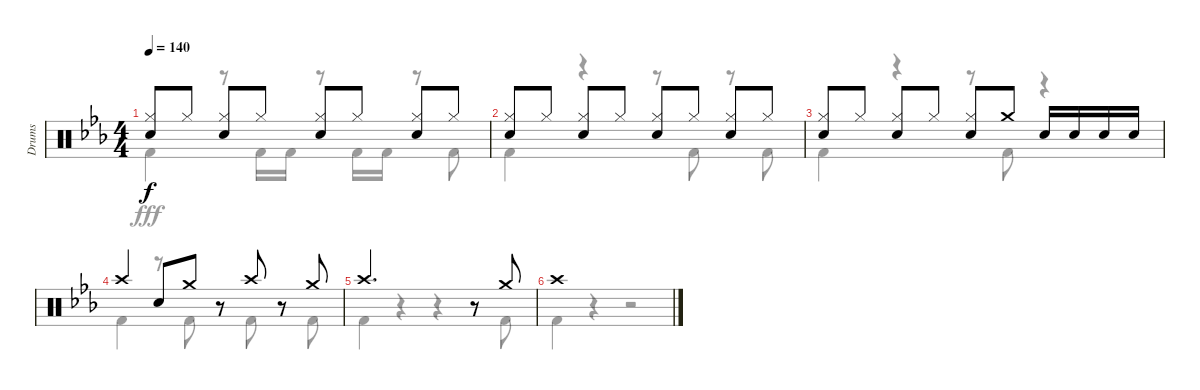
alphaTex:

\track ("Drums" "Drums") {instrument percussion}
\staff {score}
\articulation defaults
\voice
\ts (4 4)
\tempo 140
\clef neutral
\ks eb
("Hi-Hat (closed)" "Snare (hit) 2").8{dy f} "Hi-Hat (closed)".8 ("Hi-Hat (closed)" "Snare (hit) 2").8 "Hi-Hat (closed)".8 ("Hi-Hat (closed)" "Snare (hit) 2").8 "Hi-Hat (closed)".8 ("Hi-Hat (closed)" "Snare (hit) 2").8 "Hi-Hat (closed)".8 |
("Hi-Hat (closed)" "Snare (hit) 2").8 "Hi-Hat (closed)".8 ("Hi-Hat (closed)" "Snare (hit) 2").8 "Hi-Hat (closed)".8 ("Hi-Hat (closed)" "Snare (hit) 2").8 "Hi-Hat (closed)".8 ("Hi-Hat (closed)" "Snare (hit) 2").8 "Hi-Hat (closed)".8 |
("Hi-Hat (closed)" "Snare (hit) 2").8 "Hi-Hat (closed)".8 ("Hi-Hat (closed)" "Snare (hit) 2").8 "Hi-Hat (closed)".8 ("Hi-Hat (closed)" "Snare (hit) 2").8 "Crash medium (hit)".8 "Snare (hit) 2".16 "Snare (hit) 2".16 "Snare (hit) 2".16 "Snare (hit) 2".16 |
"Crash high (hit)".4 "Snare (hit) 2".8 "Crash medium (hit)".8 r.8 "Crash high (hit)".8 r.8 "Crash medium (hit)".8 |
"Crash high (hit)".2{d} r.8 "Crash medium (hit)".8 |
"Crash high (hit)".1
\voice
\clef neutral
\ottava regular
\simile none
\ks eb "Kick (hit) 2".4{dy fff}
r.8 "Kick (hit) 2".16 "Kick (hit) 2".16 r.8 "Kick (hit) 2".16 "Kick (hit) 2".16 r.8 "Kick (hit) 2".8 |
"Kick (hit) 2".4 r.4 r.8 "Kick (hit) 2".8 r.8 "Kick (hit) 2".8 |
"Kick (hit) 2".4 r.4 r.8 "Kick (hit) 2".8 r.4 |
"Kick (hit) 2".4 r.8 "Kick (hit) 2".8 r.8 "Kick (hit) 2".8 r.8 "Kick (hit) 2".8 |
"Kick (hit) 2".4 r.4 r.4 r.8 "Kick (hit) 2".8 |
"Kick (hit) 2".4 r.4 r.2
